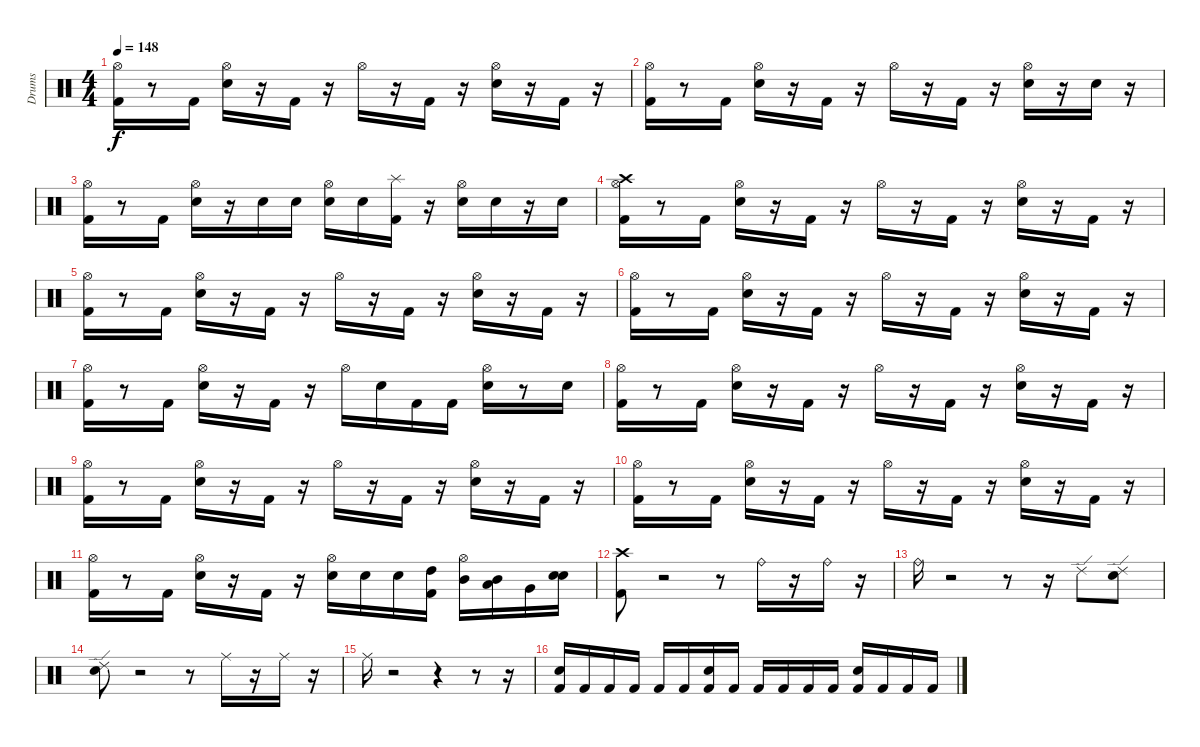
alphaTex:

\track ("Drums" "Drums") {instrument percussion}
\staff {score}
\articulation defaults
\ts (4 4)
\tempo 148
\clef neutral
\ks c
("Hi-Hat (open)" "Kick (hit) 2").16{dy f} r.8 "Kick (hit) 2".16 ("Hi-Hat (open)" "Snare (hit) 2").16 r.16 "Kick (hit) 2".16 r.16 "Hi-Hat (open)".16 r.16 "Kick (hit) 2".16 r.16 ("Hi-Hat (open)" "Snare (hit) 2").16 r.16 "Kick (hit) 2".16 r.16 |
("Hi-Hat (open)" "Kick (hit) 2").16 r.8 "Kick (hit) 2".16 ("Hi-Hat (open)" "Snare (hit) 2").16 r.16 "Kick (hit) 2".16 r.16 "Hi-Hat (open)".16 r.16 "Kick (hit) 2".16 r.16 ("Hi-Hat (open)" "Snare (hit) 2").16 r.16 "Snare (hit) 2".16 r.16 |
("Hi-Hat (open)" "Kick (hit) 2").16 r.8 "Kick (hit) 2".16 ("Hi-Hat (open)" "Snare (hit) 2").16 r.16 "Snare (hit) 2".16 "Snare (hit) 2".16 ("Hi-Hat (open)" "Snare (hit) 2").16 "Snare (hit) 2".16 ("Splash (hit)" "Kick (hit) 2").16 r.16 ("Hi-Hat (open)" "Snare (hit) 2").16 "Snare (hit) 2".16 r.16 "Snare (hit) 2".16 |
("Hi-Hat (open)" "Crash high (hit)" "Kick (hit) 2").16 r.8 "Kick (hit) 2".16 ("Hi-Hat (open)" "Snare (hit) 2").16 r.16 "Kick (hit) 2".16 r.16 "Hi-Hat (open)".16 r.16 "Kick (hit) 2".16 r.16 ("Hi-Hat (open)" "Snare (hit) 2").16 r.16 "Kick (hit) 2".16 r.16 |
("Hi-Hat (open)" "Kick (hit) 2").16 r.8 "Kick (hit) 2".16 ("Hi-Hat (open)" "Snare (hit) 2").16 r.16 "Kick (hit) 2".16 r.16 "Hi-Hat (open)".16 r.16 "Kick (hit) 2".16 r.16 ("Hi-Hat (open)" "Snare (hit) 2").16 r.16 "Kick (hit) 2".16 r.16 |
("Hi-Hat (open)" "Kick (hit) 2").16 r.8 "Kick (hit) 2".16 ("Hi-Hat (open)" "Snare (hit) 2").16 r.16 "Kick (hit) 2".16 r.16 "Hi-Hat (open)".16 r.16 "Kick (hit) 2".16 r.16 ("Hi-Hat (open)" "Snare (hit) 2").16 r.16 "Kick (hit) 2".16 r.16 |
("Hi-Hat (open)" "Kick (hit) 2").16 r.8 "Kick (hit) 2".16 ("Hi-Hat (open)" "Snare (hit) 2").16 r.16 "Kick (hit) 2".16 r.16 "Hi-Hat (open)".16 "Snare (hit) 2".16 "Kick (hit) 2".16 "Kick (hit) 2".16 ("Hi-Hat (open)" "Snare (hit) 2").16 r.8 "Snare (hit) 2".16 |
("Hi-Hat (open)" "Kick (hit) 2").16 r.8 "Kick (hit) 2".16 ("Hi-Hat (open)" "Snare (hit) 2").16 r.16 "Kick (hit) 2".16 r.16 "Hi-Hat (open)".16 r.16 "Kick (hit) 2".16 r.16 ("Hi-Hat (open)" "Snare (hit) 2").16 r.16 "Kick (hit) 2".16 r.16 |
("Hi-Hat (open)" "Kick (hit) 2").16 r.8 "Kick (hit) 2".16 ("Hi-Hat (open)" "Snare (hit) 2").16 r.16 "Kick (hit) 2".16 r.16 "Hi-Hat (open)".16 r.16 "Kick (hit) 2".16 r.16 ("Hi-Hat (open)" "Snare (hit) 2").16 r.16 "Kick (hit) 2".16 r.16 |
("Hi-Hat (open)" "Kick (hit) 2").16 r.8 "Kick (hit) 2".16 ("Hi-Hat (open)" "Snare (hit) 2").16 r.16 "Kick (hit) 2".16 r.16 "Hi-Hat (open)".16 r.16 "Kick (hit) 2".16 r.16 ("Hi-Hat (open)" "Snare (hit) 2").16 r.16 "Kick (hit) 2".16 r.16 |
("Hi-Hat (open)" "Kick (hit) 2").16 r.8 "Kick (hit) 2".16 ("Hi-Hat (open)" "Snare (hit) 2").16 r.16 "Kick (hit) 2".16 r.16 ("Hi-Hat (open)" "Snare (hit) 2").16 "Snare (hit) 2".16 "Snare (hit) 2".16 ("High Tom (hit)" "Kick (hit) 2").16 ("Hi-Hat (open)" "Mid Tom (hit)").16 ("Mid Tom (hit)" "Low Tom (hit)").16 "Very Low Tom (hit)".16 ("Snare (hit)" "Snare (hit) 2").16 |
("Crash high (hit)" "Kick (hit) 2").8 r.2 r.8 "Ride (bell)".16 r.16 "Ride (bell)".16 r.16 |
"Ride (bell)".16 r.2 r.8 r.16 "Ride (edge) 2".8 ("Snare (hit)" "Ride (edge) 2").8 |
("Snare (hit)" "Ride (edge) 2").8 r.2 r.8 "Ride (middle)".16 r.16 "Ride (middle)".16 r.16 |
"Ride (middle)".16 r.2 r.4 r.8 r.16 |
("Kick (hit) 2" "Snare (hit) 2").16 "Kick (hit) 2".16 "Kick (hit) 2".16 "Kick (hit) 2".16 "Kick (hit) 2".16 "Kick (hit) 2".16 ("Kick (hit) 2" "Snare (hit) 2").16 "Kick (hit) 2".16 "Kick (hit) 2".16 "Kick (hit) 2".16 "Kick (hit) 2".16 "Kick (hit) 2".16 ("Kick (hit) 2" "Snare (hit) 2").16 "Kick (hit) 2".16 "Kick (hit) 2".16 "Kick (hit) 2".16
